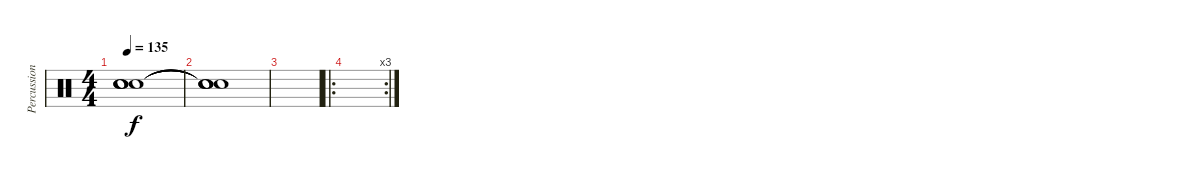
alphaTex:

\track ("Percussioni" "Percussion") {instrument percussion}
\staff {score}
\articulation defaults
\ts (4 4)
\tempo 135
\clef neutral
\ks c
("Snare (hit)"{t} "Snare (hit)"{t} "Snare (hit)"{t} "Snare (hit)"{t}).1{dy f} |
("Snare (hit)"{t} "Snare (hit)"{t} "Snare (hit)"{t} "Snare (hit)"{t}).1 |
|
\ro
\rc 3
